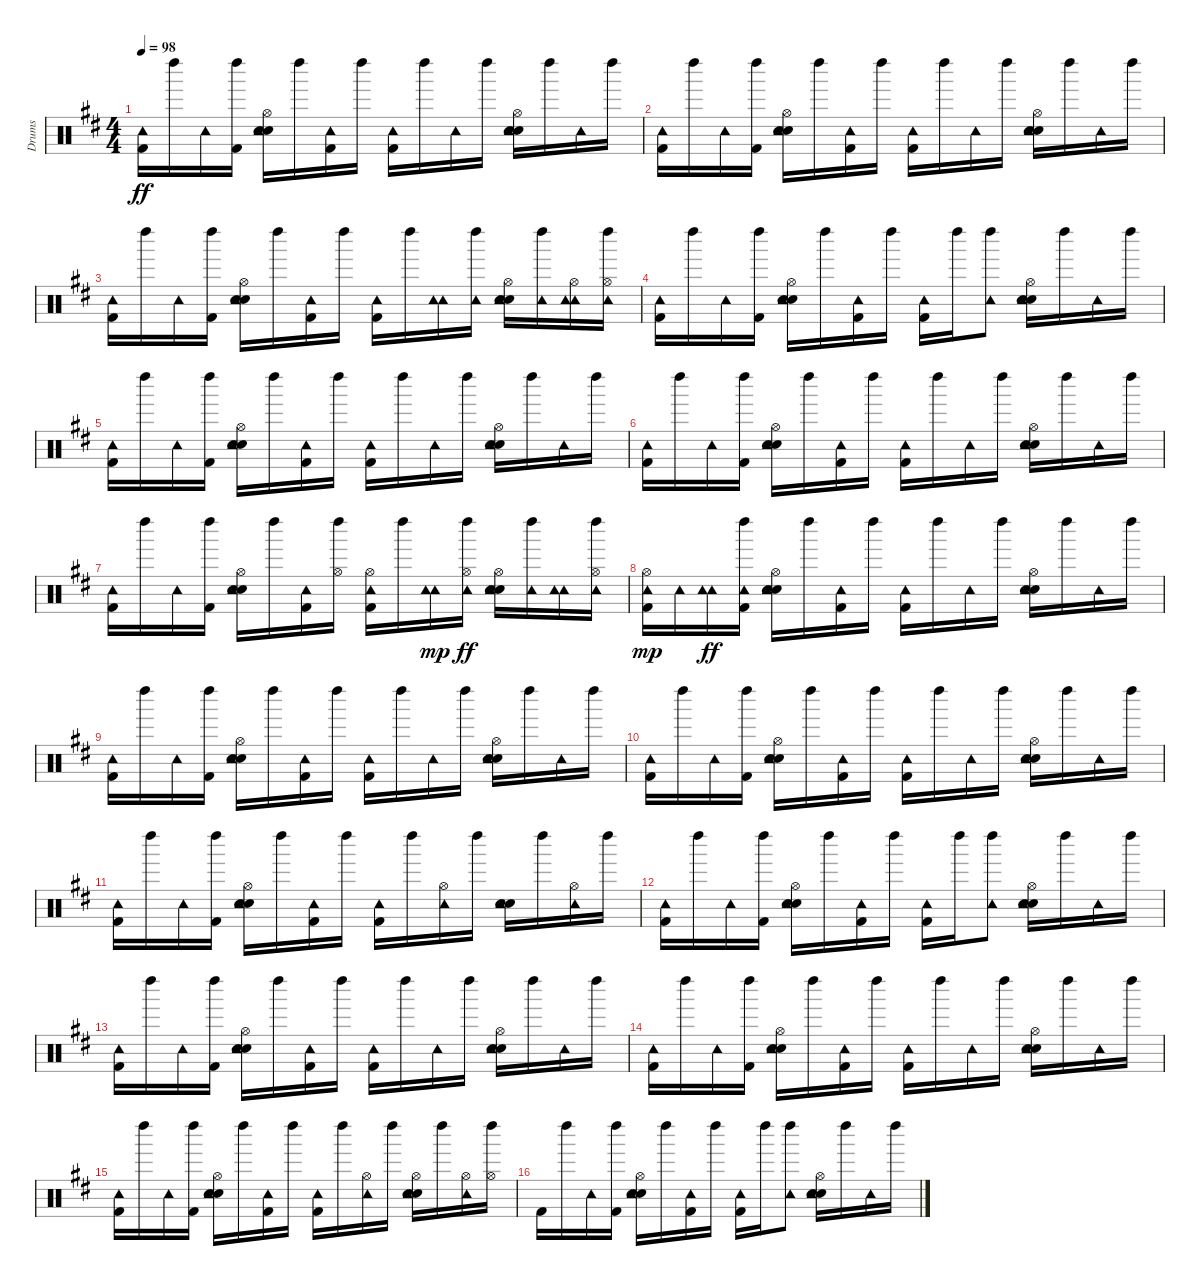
\track ("Drums" "Drums") {instrument percussion}
\staff {score}
\articulation defaults
\ts (4 4)
\tempo 98
\clef neutral
\ks d
("Kick (hit) 2" "Tambourine (hit)").16{dy ff} "Left Maraca (hit)".16 "Tambourine (hit)".16 ("Kick (hit) 2" "Left Maraca (hit)").16 ("Snare (hit) 2" "Electric Snare (hit)" "Hi-Hat (open)" "Tambourine (hit)").16 "Left Maraca (hit)".16 ("Kick (hit) 2" "Tambourine (hit)").16 "Left Maraca (hit)".16 ("Kick (hit) 2" "Tambourine (hit)").16 "Left Maraca (hit)".16 "Tambourine (hit)".16 "Left Maraca (hit)".16 ("Snare (hit) 2" "Electric Snare (hit)" "Hi-Hat (open)" "Tambourine (hit)").16 "Left Maraca (hit)".16 "Tambourine (hit)".16 "Left Maraca (hit)".16 |
("Kick (hit) 2" "Tambourine (hit)").16 "Left Maraca (hit)".16 "Tambourine (hit)".16 ("Kick (hit) 2" "Left Maraca (hit)").16 ("Snare (hit) 2" "Electric Snare (hit)" "Hi-Hat (open)" "Tambourine (hit)").16 "Left Maraca (hit)".16 ("Kick (hit) 2" "Tambourine (hit)").16 "Left Maraca (hit)".16 ("Kick (hit) 2" "Tambourine (hit)").16 "Left Maraca (hit)".16 "Tambourine (hit)".16 "Left Maraca (hit)".16 ("Snare (hit) 2" "Electric Snare (hit)" "Hi-Hat (open)" "Tambourine (hit)").16 "Left Maraca (hit)".16 "Tambourine (hit)".16 "Left Maraca (hit)".16 |
("Kick (hit) 2" "Tambourine (hit)").16 "Left Maraca (hit)".16 "Tambourine (hit)".16 ("Kick (hit) 2" "Left Maraca (hit)").16 ("Snare (hit) 2" "Electric Snare (hit)" "Hi-Hat (open)" "Tambourine (hit)").16 "Left Maraca (hit)".16 ("Kick (hit) 2" "Tambourine (hit)").16 "Left Maraca (hit)".16 ("Kick (hit) 2" "Tambourine (hit)").16 "Left Maraca (hit)".16 ("Tambourine (hit)" "Tambourine (hit)").16 ("Tambourine (hit)" "Left Maraca (hit)").16 ("Snare (hit) 2" "Electric Snare (hit)" "Hi-Hat (open)" "Tambourine (hit)" "Tambourine (hit)").16 ("Tambourine (hit)" "Left Maraca (hit)").16 ("Hi-Hat (open)" "Tambourine (hit)" "Tambourine (hit)").16 ("Hi-Hat (open)" "Tambourine (hit)" "Left Maraca (hit)").16 |
("Kick (hit) 2" "Tambourine (hit)").16 "Left Maraca (hit)".16 "Tambourine (hit)".16 ("Kick (hit) 2" "Left Maraca (hit)").16 ("Snare (hit) 2" "Electric Snare (hit)" "Hi-Hat (open)" "Tambourine (hit)").16 "Left Maraca (hit)".16 ("Kick (hit) 2" "Tambourine (hit)").16 "Left Maraca (hit)".16 ("Kick (hit) 2" "Tambourine (hit)").16 "Left Maraca (hit)".16 ("Tambourine (hit)" "Left Maraca (hit)").8 ("Snare (hit) 2" "Electric Snare (hit)" "Hi-Hat (open)" "Tambourine (hit)").16 "Left Maraca (hit)".16 "Tambourine (hit)".16 "Left Maraca (hit)".16 |
("Kick (hit) 2" "Tambourine (hit)").16 "Left Maraca (hit)".16 "Tambourine (hit)".16 ("Kick (hit) 2" "Left Maraca (hit)").16 ("Snare (hit) 2" "Electric Snare (hit)" "Hi-Hat (open)" "Tambourine (hit)").16 "Left Maraca (hit)".16 ("Kick (hit) 2" "Tambourine (hit)").16 "Left Maraca (hit)".16 ("Kick (hit) 2" "Tambourine (hit)").16 "Left Maraca (hit)".16 "Tambourine (hit)".16 "Left Maraca (hit)".16 ("Snare (hit) 2" "Electric Snare (hit)" "Hi-Hat (open)" "Tambourine (hit)").16 "Left Maraca (hit)".16 "Tambourine (hit)".16 "Left Maraca (hit)".16 |
("Kick (hit) 2" "Tambourine (hit)").16 "Left Maraca (hit)".16 "Tambourine (hit)".16 ("Kick (hit) 2" "Left Maraca (hit)").16 ("Snare (hit) 2" "Electric Snare (hit)" "Hi-Hat (open)" "Tambourine (hit)").16 "Left Maraca (hit)".16 ("Kick (hit) 2" "Tambourine (hit)").16 "Left Maraca (hit)".16 ("Kick (hit) 2" "Tambourine (hit)").16 "Left Maraca (hit)".16 "Tambourine (hit)".16 "Left Maraca (hit)".16 ("Snare (hit) 2" "Electric Snare (hit)" "Hi-Hat (open)" "Tambourine (hit)").16 "Left Maraca (hit)".16 "Tambourine (hit)".16 "Left Maraca (hit)".16 |
("Kick (hit) 2" "Tambourine (hit)").16 "Left Maraca (hit)".16 "Tambourine (hit)".16 ("Kick (hit) 2" "Left Maraca (hit)").16 ("Snare (hit) 2" "Electric Snare (hit)" "Hi-Hat (open)" "Tambourine (hit)").16 "Left Maraca (hit)".16 ("Kick (hit) 2" "Tambourine (hit)").16 ("Hi-Hat (open)" "Left Maraca (hit)").16 ("Kick (hit) 2" "Hi-Hat (open)" "Tambourine (hit)").16 "Left Maraca (hit)".16 ("Tambourine (hit)" "Tambourine (hit)").16{dy mp} ("Hi-Hat (open)" "Tambourine (hit)" "Left Maraca (hit)").16{dy ff} ("Snare (hit) 2" "Electric Snare (hit)" "Hi-Hat (open)" "Tambourine (hit)" "Tambourine (hit)").16 ("Tambourine (hit)" "Left Maraca (hit)").16 ("Tambourine (hit)" "Tambourine (hit)").16 ("Hi-Hat (open)" "Tambourine (hit)" "Left Maraca (hit)").16 |
("Kick (hit) 2" "Hi-Hat (open)" "Tambourine (hit)").16{dy mp} "Tambourine (hit)".16 ("Tambourine (hit)" "Tambourine (hit)").16{dy ff} ("Kick (hit) 2" "Tambourine (hit)" "Left Maraca (hit)").16 ("Snare (hit) 2" "Electric Snare (hit)" "Hi-Hat (open)" "Tambourine (hit)" "Tambourine (hit)").16 "Left Maraca (hit)".16 ("Kick (hit) 2" "Tambourine (hit)").16 "Left Maraca (hit)".16 ("Kick (hit) 2" "Tambourine (hit)").16 "Left Maraca (hit)".16 "Tambourine (hit)".16 "Left Maraca (hit)".16 ("Snare (hit) 2" "Electric Snare (hit)" "Hi-Hat (open)" "Tambourine (hit)").16 "Left Maraca (hit)".16 "Tambourine (hit)".16 "Left Maraca (hit)".16 |
("Kick (hit) 2" "Tambourine (hit)").16 "Left Maraca (hit)".16 "Tambourine (hit)".16 ("Kick (hit) 2" "Left Maraca (hit)").16 ("Snare (hit) 2" "Electric Snare (hit)" "Hi-Hat (open)" "Tambourine (hit)").16 "Left Maraca (hit)".16 ("Kick (hit) 2" "Tambourine (hit)").16 "Left Maraca (hit)".16 ("Kick (hit) 2" "Tambourine (hit)").16 "Left Maraca (hit)".16 "Tambourine (hit)".16 "Left Maraca (hit)".16 ("Snare (hit) 2" "Electric Snare (hit)" "Hi-Hat (open)" "Tambourine (hit)").16 "Left Maraca (hit)".16 "Tambourine (hit)".16 "Left Maraca (hit)".16 |
("Kick (hit) 2" "Tambourine (hit)").16 "Left Maraca (hit)".16 "Tambourine (hit)".16 ("Kick (hit) 2" "Left Maraca (hit)").16 ("Snare (hit) 2" "Electric Snare (hit)" "Hi-Hat (open)" "Tambourine (hit)").16 "Left Maraca (hit)".16 ("Kick (hit) 2" "Tambourine (hit)").16 "Left Maraca (hit)".16 ("Kick (hit) 2" "Tambourine (hit)").16 "Left Maraca (hit)".16 "Tambourine (hit)".16 "Left Maraca (hit)".16 ("Snare (hit) 2" "Electric Snare (hit)" "Hi-Hat (open)" "Tambourine (hit)").16 "Left Maraca (hit)".16 "Tambourine (hit)".16 "Left Maraca (hit)".16 |
("Kick (hit) 2" "Tambourine (hit)").16 "Left Maraca (hit)".16 "Tambourine (hit)".16 ("Kick (hit) 2" "Left Maraca (hit)").16 ("Snare (hit) 2" "Electric Snare (hit)" "Hi-Hat (open)" "Tambourine (hit)").16 "Left Maraca (hit)".16 ("Kick (hit) 2" "Tambourine (hit)").16 "Left Maraca (hit)".16 ("Kick (hit) 2" "Tambourine (hit)").16 "Left Maraca (hit)".16 ("Hi-Hat (open)" "Tambourine (hit)").16 "Left Maraca (hit)".16 ("Snare (hit) 2" "Electric Snare (hit)" "Tambourine (hit)").16 "Left Maraca (hit)".16 ("Hi-Hat (open)" "Tambourine (hit)").16 "Left Maraca (hit)".16 |
("Kick (hit) 2" "Tambourine (hit)").16 "Left Maraca (hit)".16 "Tambourine (hit)".16 ("Kick (hit) 2" "Left Maraca (hit)").16 ("Snare (hit) 2" "Electric Snare (hit)" "Hi-Hat (open)" "Tambourine (hit)").16 "Left Maraca (hit)".16 ("Kick (hit) 2" "Tambourine (hit)").16 "Left Maraca (hit)".16 ("Kick (hit) 2" "Tambourine (hit)").16 "Left Maraca (hit)".16 ("Tambourine (hit)" "Left Maraca (hit)").8 ("Snare (hit) 2" "Electric Snare (hit)" "Hi-Hat (open)" "Tambourine (hit)").16 "Left Maraca (hit)".16 "Tambourine (hit)".16 "Left Maraca (hit)".16 |
("Kick (hit) 2" "Tambourine (hit)").16 "Left Maraca (hit)".16 "Tambourine (hit)".16 ("Kick (hit) 2" "Left Maraca (hit)").16 ("Snare (hit) 2" "Electric Snare (hit)" "Hi-Hat (open)" "Tambourine (hit)").16 "Left Maraca (hit)".16 ("Kick (hit) 2" "Tambourine (hit)").16 "Left Maraca (hit)".16 ("Kick (hit) 2" "Tambourine (hit)").16 "Left Maraca (hit)".16 "Tambourine (hit)".16 "Left Maraca (hit)".16 ("Snare (hit) 2" "Electric Snare (hit)" "Hi-Hat (open)" "Tambourine (hit)").16 "Left Maraca (hit)".16 "Tambourine (hit)".16 "Left Maraca (hit)".16 |
("Kick (hit) 2" "Tambourine (hit)").16 "Left Maraca (hit)".16 "Tambourine (hit)".16 ("Kick (hit) 2" "Left Maraca (hit)").16 ("Snare (hit) 2" "Electric Snare (hit)" "Hi-Hat (open)" "Tambourine (hit)").16 "Left Maraca (hit)".16 ("Kick (hit) 2" "Tambourine (hit)").16 "Left Maraca (hit)".16 ("Kick (hit) 2" "Tambourine (hit)").16 "Left Maraca (hit)".16 "Tambourine (hit)".16 "Left Maraca (hit)".16 ("Snare (hit) 2" "Electric Snare (hit)" "Hi-Hat (open)" "Tambourine (hit)").16 "Left Maraca (hit)".16 "Tambourine (hit)".16 "Left Maraca (hit)".16 |
("Kick (hit) 2" "Tambourine (hit)").16 "Left Maraca (hit)".16 "Tambourine (hit)".16 ("Kick (hit) 2" "Left Maraca (hit)").16 ("Snare (hit) 2" "Electric Snare (hit)" "Hi-Hat (open)" "Tambourine (hit)").16 "Left Maraca (hit)".16 ("Kick (hit) 2" "Tambourine (hit)").16 "Left Maraca (hit)".16 ("Kick (hit) 2" "Tambourine (hit)").16 "Left Maraca (hit)".16 ("Hi-Hat (open)" "Tambourine (hit)").16 "Left Maraca (hit)".16 ("Snare (hit) 2" "Electric Snare (hit)" "Hi-Hat (open)" "Tambourine (hit)").16 "Left Maraca (hit)".16 ("Hi-Hat (open)" "Tambourine (hit)").16 ("Hi-Hat (open)" "Left Maraca (hit)").16 |
"Kick (hit) 2".16 "Left Maraca (hit)".16 "Tambourine (hit)".16 ("Kick (hit) 2" "Left Maraca (hit)").16 ("Snare (hit) 2" "Electric Snare (hit)" "Hi-Hat (open)" "Tambourine (hit)").16 "Left Maraca (hit)".16 ("Kick (hit) 2" "Tambourine (hit)").16 "Left Maraca (hit)".16 ("Kick (hit) 2" "Tambourine (hit)").16 "Left Maraca (hit)".16 ("Tambourine (hit)" "Left Maraca (hit)").8 ("Snare (hit) 2" "Electric Snare (hit)" "Hi-Hat (open)" "Tambourine (hit)").16 "Left Maraca (hit)".16 "Tambourine (hit)".16 "Left Maraca (hit)".16
